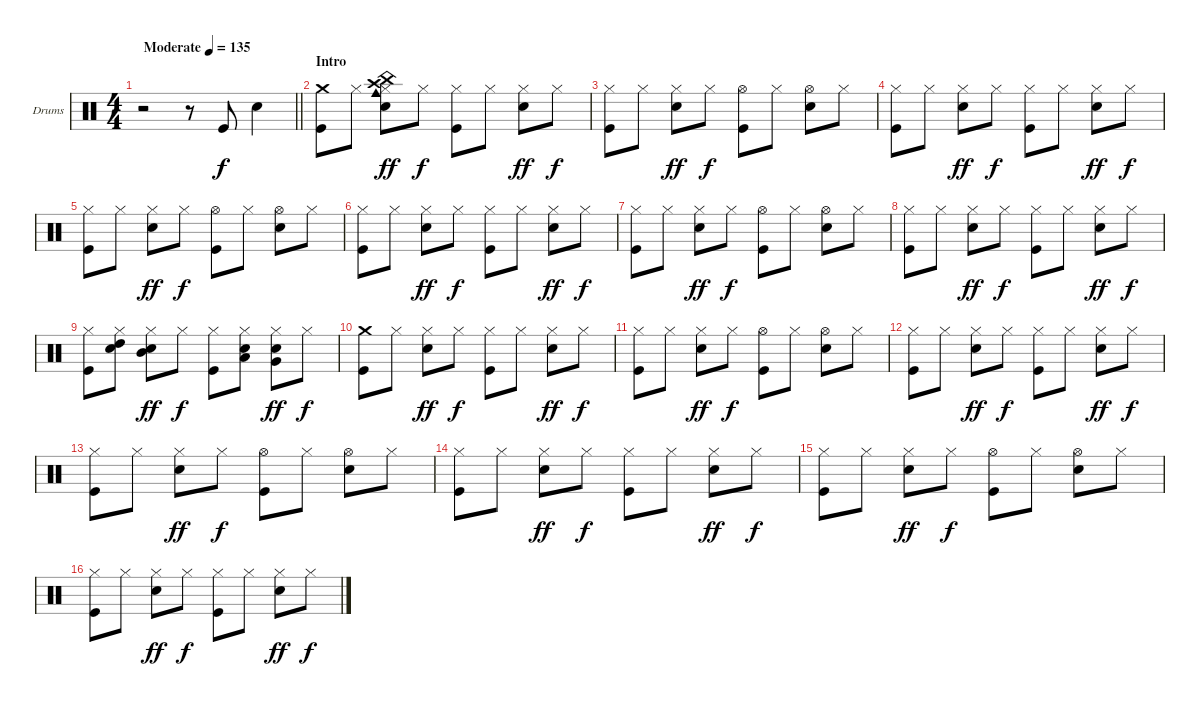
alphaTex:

\bracketExtendMode groupsimilarinstruments
\firstSystemTrackNameOrientation horizontal
\otherSystemsTrackNameOrientation horizontal
\track ("Drumkit" "Drums") {instrument percussion}
\staff {score}
\articulation defaults
\ts (4 4)
\beaming (8 2 2 2 2)
\tempo (135 "Moderate")
\clef neutral
\barLineRight lightlight
\ks c
r.2{dy f} r.8 "Kick (hit)".8 "Snare (hit) 2".4 |
\section ("" "Intro")
("Crash medium (hit)" "Kick (hit)").8 "Hi-Hat (closed)".8 ("Hi-Hat (closed)" "Snare (hit) 2" "Crash high (hit)" "China (hit)" "Cowbell medium (hit)").8{dy ff} "Hi-Hat (closed)".8{dy f} ("Hi-Hat (closed)" "Kick (hit)").8 "Hi-Hat (closed)".8 ("Hi-Hat (closed)" "Snare (hit) 2").8{dy ff} "Hi-Hat (closed)".8{dy f} |
("Hi-Hat (closed)" "Kick (hit)").8 "Hi-Hat (closed)".8 ("Hi-Hat (closed)" "Snare (hit) 2").8{dy ff} "Hi-Hat (closed)".8{dy f} ("Hi-Hat (open)" "Kick (hit)").8 "Hi-Hat (closed)".8 ("Hi-Hat (open)" "Snare (hit) 2").8 "Hi-Hat (closed)".8 |
("Hi-Hat (closed)" "Kick (hit)").8 "Hi-Hat (closed)".8 ("Hi-Hat (closed)" "Snare (hit) 2").8{dy ff} "Hi-Hat (closed)".8{dy f} ("Hi-Hat (closed)" "Kick (hit)").8 "Hi-Hat (closed)".8 ("Hi-Hat (closed)" "Snare (hit) 2").8{dy ff} "Hi-Hat (closed)".8{dy f} |
("Hi-Hat (closed)" "Kick (hit)").8 "Hi-Hat (closed)".8 ("Hi-Hat (closed)" "Snare (hit) 2").8{dy ff} "Hi-Hat (closed)".8{dy f} ("Hi-Hat (open)" "Kick (hit)").8 "Hi-Hat (closed)".8 ("Hi-Hat (open)" "Snare (hit) 2").8 "Hi-Hat (closed)".8 |
("Hi-Hat (closed)" "Kick (hit)").8 "Hi-Hat (closed)".8 ("Hi-Hat (closed)" "Snare (hit) 2").8{dy ff} "Hi-Hat (closed)".8{dy f} ("Hi-Hat (closed)" "Kick (hit)").8 "Hi-Hat (closed)".8 ("Hi-Hat (closed)" "Snare (hit) 2").8{dy ff} "Hi-Hat (closed)".8{dy f} |
("Hi-Hat (closed)" "Kick (hit)").8 "Hi-Hat (closed)".8 ("Hi-Hat (closed)" "Snare (hit) 2").8{dy ff} "Hi-Hat (closed)".8{dy f} ("Hi-Hat (open)" "Kick (hit)").8 "Hi-Hat (closed)".8 ("Hi-Hat (open)" "Snare (hit) 2").8 "Hi-Hat (closed)".8 |
("Hi-Hat (closed)" "Kick (hit)").8 "Hi-Hat (closed)".8 ("Hi-Hat (closed)" "Snare (hit) 2").8{dy ff} "Hi-Hat (closed)".8{dy f} ("Hi-Hat (closed)" "Kick (hit)").8 "Hi-Hat (closed)".8 ("Hi-Hat (closed)" "Snare (hit) 2").8{dy ff} "Hi-Hat (closed)".8{dy f} |
("Hi-Hat (closed)" "Kick (hit)").8 ("Hi-Hat (closed)" "Snare (hit) 2" "High Tom (hit)").8 ("Hi-Hat (closed)" "Snare (hit) 2" "Mid Tom (hit)").8{dy ff} "Hi-Hat (closed)".8{dy f} ("Hi-Hat (closed)" "Kick (hit)").8 ("Hi-Hat (closed)" "Snare (hit) 2" "Low Tom (hit)").8 ("Hi-Hat (closed)" "Snare (hit) 2" "Very Low Tom (hit)").8{dy ff} "Hi-Hat (closed)".8{dy f} |
("Crash medium (hit)" "Kick (hit)").8 "Hi-Hat (closed)".8 ("Hi-Hat (closed)" "Snare (hit) 2").8{dy ff} "Hi-Hat (closed)".8{dy f} ("Hi-Hat (closed)" "Kick (hit)").8 "Hi-Hat (closed)".8 ("Hi-Hat (closed)" "Snare (hit) 2").8{dy ff} "Hi-Hat (closed)".8{dy f} |
("Hi-Hat (closed)" "Kick (hit)").8 "Hi-Hat (closed)".8 ("Hi-Hat (closed)" "Snare (hit) 2").8{dy ff} "Hi-Hat (closed)".8{dy f} ("Hi-Hat (open)" "Kick (hit)").8 "Hi-Hat (closed)".8 ("Hi-Hat (open)" "Snare (hit) 2").8 "Hi-Hat (closed)".8 |
("Hi-Hat (closed)" "Kick (hit)").8 "Hi-Hat (closed)".8 ("Hi-Hat (closed)" "Snare (hit) 2").8{dy ff} "Hi-Hat (closed)".8{dy f} ("Hi-Hat (closed)" "Kick (hit)").8 "Hi-Hat (closed)".8 ("Hi-Hat (closed)" "Snare (hit) 2").8{dy ff} "Hi-Hat (closed)".8{dy f} |
("Hi-Hat (closed)" "Kick (hit)").8 "Hi-Hat (closed)".8 ("Hi-Hat (closed)" "Snare (hit) 2").8{dy ff} "Hi-Hat (closed)".8{dy f} ("Hi-Hat (open)" "Kick (hit)").8 "Hi-Hat (closed)".8 ("Hi-Hat (open)" "Snare (hit) 2").8 "Hi-Hat (closed)".8 |
("Hi-Hat (closed)" "Kick (hit)").8 "Hi-Hat (closed)".8 ("Hi-Hat (closed)" "Snare (hit) 2").8{dy ff} "Hi-Hat (closed)".8{dy f} ("Hi-Hat (closed)" "Kick (hit)").8 "Hi-Hat (closed)".8 ("Hi-Hat (closed)" "Snare (hit) 2").8{dy ff} "Hi-Hat (closed)".8{dy f} |
("Hi-Hat (closed)" "Kick (hit)").8 "Hi-Hat (closed)".8 ("Hi-Hat (closed)" "Snare (hit) 2").8{dy ff} "Hi-Hat (closed)".8{dy f} ("Hi-Hat (open)" "Kick (hit)").8 "Hi-Hat (closed)".8 ("Hi-Hat (open)" "Snare (hit) 2").8 "Hi-Hat (closed)".8 |
("Hi-Hat (closed)" "Kick (hit)").8 "Hi-Hat (closed)".8 ("Hi-Hat (closed)" "Snare (hit) 2").8{dy ff} "Hi-Hat (closed)".8{dy f} ("Hi-Hat (closed)" "Kick (hit)").8 "Hi-Hat (closed)".8 ("Hi-Hat (closed)" "Snare (hit) 2").8{dy ff} "Hi-Hat (closed)".8{dy f}
